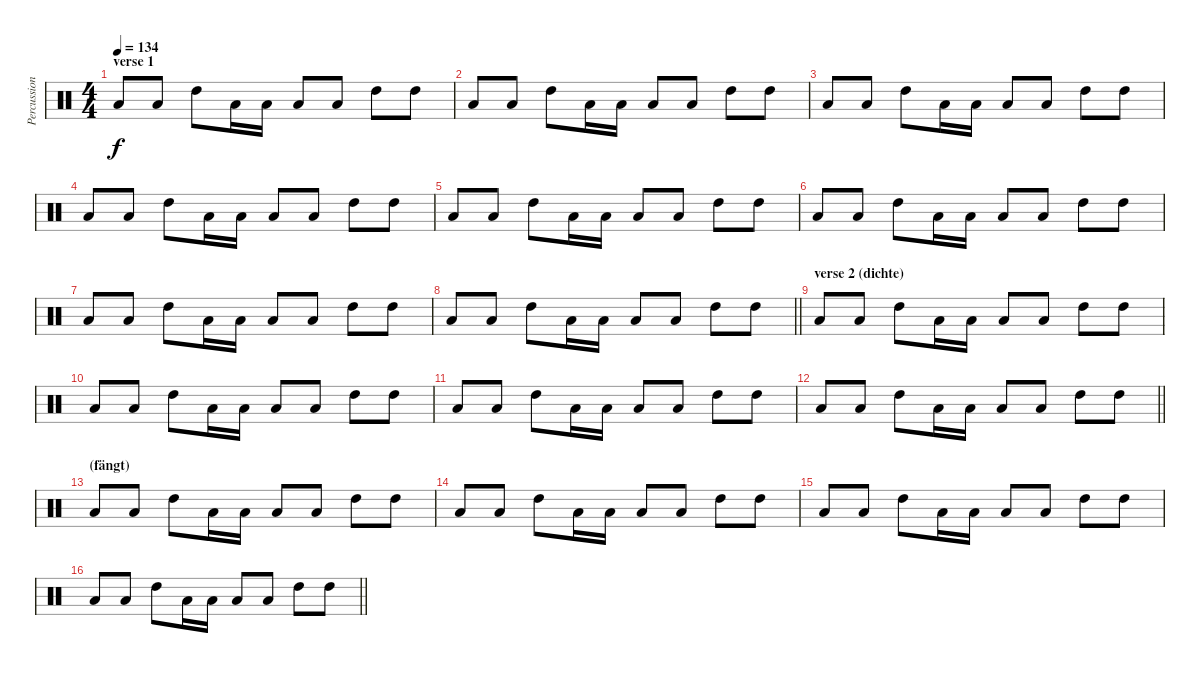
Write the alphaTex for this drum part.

\track ("Percussion" "Percussion") {instrument percussion}
\staff {score}
\articulation defaults
\ts (4 4)
\section ("" "verse 1")
\tempo 134
\clef neutral
\ks c "Low Tom (hit)".8{dy f} "Low Tom (hit)".8 "High Tom (hit)".8 "Low Tom (hit)".16 "Low Tom (hit)".16 "Low Tom (hit)".8 "Low Tom (hit)".8 "High Tom (hit)".8 "High Tom (hit)".8
|
"Low Tom (hit)".8 "Low Tom (hit)".8 "High Tom (hit)".8 "Low Tom (hit)".16 "Low Tom (hit)".16 "Low Tom (hit)".8 "Low Tom (hit)".8 "High Tom (hit)".8 "High Tom (hit)".8 |
"Low Tom (hit)".8 "Low Tom (hit)".8 "High Tom (hit)".8 "Low Tom (hit)".16 "Low Tom (hit)".16 "Low Tom (hit)".8 "Low Tom (hit)".8 "High Tom (hit)".8 "High Tom (hit)".8 |
"Low Tom (hit)".8 "Low Tom (hit)".8 "High Tom (hit)".8 "Low Tom (hit)".16 "Low Tom (hit)".16 "Low Tom (hit)".8 "Low Tom (hit)".8 "High Tom (hit)".8 "High Tom (hit)".8 |
"Low Tom (hit)".8 "Low Tom (hit)".8 "High Tom (hit)".8 "Low Tom (hit)".16 "Low Tom (hit)".16 "Low Tom (hit)".8 "Low Tom (hit)".8 "High Tom (hit)".8 "High Tom (hit)".8 |
"Low Tom (hit)".8 "Low Tom (hit)".8 "High Tom (hit)".8 "Low Tom (hit)".16 "Low Tom (hit)".16 "Low Tom (hit)".8 "Low Tom (hit)".8 "High Tom (hit)".8 "High Tom (hit)".8 |
"Low Tom (hit)".8 "Low Tom (hit)".8 "High Tom (hit)".8 "Low Tom (hit)".16 "Low Tom (hit)".16 "Low Tom (hit)".8 "Low Tom (hit)".8 "High Tom (hit)".8 "High Tom (hit)".8 |
\barLineRight lightlight "Low Tom (hit)".8 "Low Tom (hit)".8 "High Tom (hit)".8 "Low Tom (hit)".16 "Low Tom (hit)".16 "Low Tom (hit)".8 "Low Tom (hit)".8 "High Tom (hit)".8 "High Tom (hit)".8
|
\section ("" "verse 2 (dichte)")
"Low Tom (hit)".8 "Low Tom (hit)".8 "High Tom (hit)".8 "Low Tom (hit)".16 "Low Tom (hit)".16 "Low Tom (hit)".8 "Low Tom (hit)".8 "High Tom (hit)".8 "High Tom (hit)".8 |
"Low Tom (hit)".8 "Low Tom (hit)".8 "High Tom (hit)".8 "Low Tom (hit)".16 "Low Tom (hit)".16 "Low Tom (hit)".8 "Low Tom (hit)".8 "High Tom (hit)".8 "High Tom (hit)".8 |
"Low Tom (hit)".8 "Low Tom (hit)".8 "High Tom (hit)".8 "Low Tom (hit)".16 "Low Tom (hit)".16 "Low Tom (hit)".8 "Low Tom (hit)".8 "High Tom (hit)".8 "High Tom (hit)".8 |
\barLineRight lightlight "Low Tom (hit)".8 "Low Tom (hit)".8 "High Tom (hit)".8 "Low Tom (hit)".16 "Low Tom (hit)".16 "Low Tom (hit)".8 "Low Tom (hit)".8 "High Tom (hit)".8 "High Tom (hit)".8
|
\section ("" "(fängt)")
"Low Tom (hit)".8 "Low Tom (hit)".8 "High Tom (hit)".8 "Low Tom (hit)".16 "Low Tom (hit)".16 "Low Tom (hit)".8 "Low Tom (hit)".8 "High Tom (hit)".8 "High Tom (hit)".8 |
"Low Tom (hit)".8 "Low Tom (hit)".8 "High Tom (hit)".8 "Low Tom (hit)".16 "Low Tom (hit)".16 "Low Tom (hit)".8 "Low Tom (hit)".8 "High Tom (hit)".8 "High Tom (hit)".8 |
"Low Tom (hit)".8 "Low Tom (hit)".8 "High Tom (hit)".8 "Low Tom (hit)".16 "Low Tom (hit)".16 "Low Tom (hit)".8 "Low Tom (hit)".8 "High Tom (hit)".8 "High Tom (hit)".8 |
\barLineRight lightlight "Low Tom (hit)".8 "Low Tom (hit)".8 "High Tom (hit)".8 "Low Tom (hit)".16 "Low Tom (hit)".16 "Low Tom (hit)".8 "Low Tom (hit)".8 "High Tom (hit)".8 "High Tom (hit)".8
